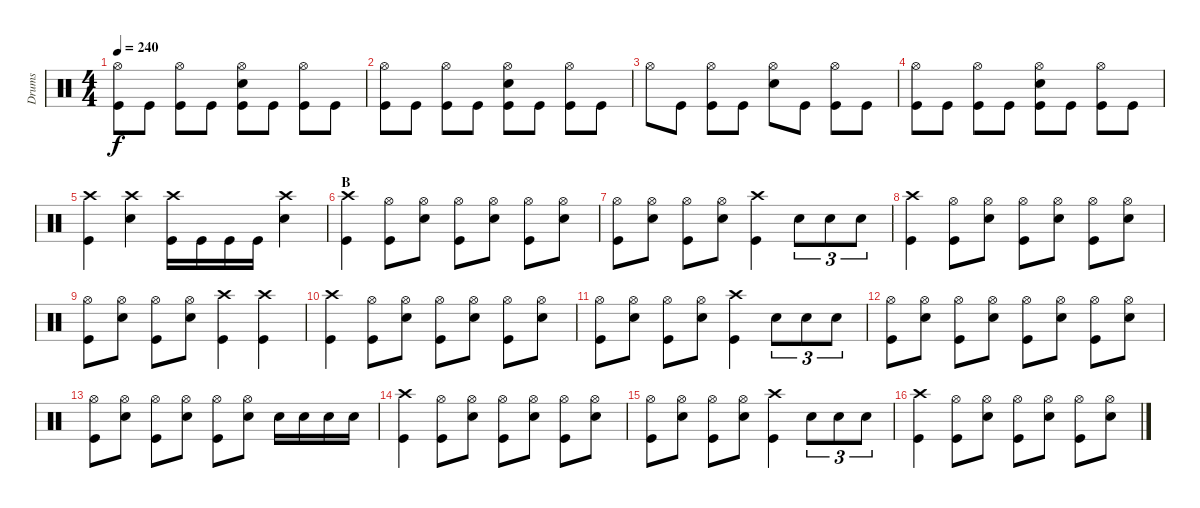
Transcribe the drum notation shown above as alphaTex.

\track ("Drums" "Drums") {instrument percussion}
\staff {score}
\articulation defaults
\ts (4 4)
\tempo 240
\clef neutral
\ks c
("Hi-Hat (open)" "Kick (hit)").8{dy f} "Kick (hit)".8 ("Hi-Hat (open)" "Kick (hit)").8 "Kick (hit)".8 ("Hi-Hat (open)" "Snare (hit) 2" "Kick (hit)").8 "Kick (hit)".8 ("Hi-Hat (open)" "Kick (hit)").8 "Kick (hit)".8 |
("Hi-Hat (open)" "Kick (hit)").8 "Kick (hit)".8 ("Hi-Hat (open)" "Kick (hit)").8 "Kick (hit)".8 ("Hi-Hat (open)" "Snare (hit) 2" "Kick (hit)").8 "Kick (hit)".8 ("Hi-Hat (open)" "Kick (hit)").8 "Kick (hit)".8 |
"Hi-Hat (open)".8 "Kick (hit)".8 ("Hi-Hat (open)" "Kick (hit)").8 "Kick (hit)".8 ("Hi-Hat (open)" "Snare (hit) 2").8 "Kick (hit)".8 ("Hi-Hat (open)" "Kick (hit)").8 "Kick (hit)".8 |
("Hi-Hat (open)" "Kick (hit)").8 "Kick (hit)".8 ("Hi-Hat (open)" "Kick (hit)").8 "Kick (hit)".8 ("Hi-Hat (open)" "Snare (hit) 2" "Kick (hit)").8 "Kick (hit)".8 ("Hi-Hat (open)" "Kick (hit)").8 "Kick (hit)".8 |
("Crash high (hit)" "Kick (hit)").4 ("Crash high (hit)" "Snare (hit) 2").4 ("Crash high (hit)" "Kick (hit)").16 "Kick (hit)".16 "Kick (hit)".16 "Kick (hit)".16 ("Crash high (hit)" "Snare (hit) 2").4 |
\section ("" "B")
("Crash high (hit)" "Kick (hit)").4 ("Hi-Hat (open)" "Kick (hit)").8 ("Hi-Hat (open)" "Snare (hit) 2").8 ("Hi-Hat (open)" "Kick (hit)").8 ("Hi-Hat (open)" "Snare (hit) 2").8 ("Hi-Hat (open)" "Kick (hit)").8 ("Hi-Hat (open)" "Snare (hit) 2").8 |
("Hi-Hat (open)" "Kick (hit)").8 ("Hi-Hat (open)" "Snare (hit) 2").8 ("Hi-Hat (open)" "Kick (hit)").8 ("Hi-Hat (open)" "Snare (hit) 2").8 ("Crash high (hit)" "Kick (hit)").4 "Snare (hit) 2".8{tu (3 2)} "Snare (hit) 2".8{tu (3 2)} "Snare (hit) 2".8{tu (3 2)} |
("Crash high (hit)" "Kick (hit)").4 ("Hi-Hat (open)" "Kick (hit)").8 ("Hi-Hat (open)" "Snare (hit) 2").8 ("Hi-Hat (open)" "Kick (hit)").8 ("Hi-Hat (open)" "Snare (hit) 2").8 ("Hi-Hat (open)" "Kick (hit)").8 ("Hi-Hat (open)" "Snare (hit) 2").8 |
("Hi-Hat (open)" "Kick (hit)").8 ("Hi-Hat (open)" "Snare (hit) 2").8 ("Hi-Hat (open)" "Kick (hit)").8 ("Hi-Hat (open)" "Snare (hit) 2").8 ("Crash high (hit)" "Kick (hit)").4 ("Crash high (hit)" "Kick (hit)").4 |
("Crash high (hit)" "Kick (hit)").4 ("Hi-Hat (open)" "Kick (hit)").8 ("Hi-Hat (open)" "Snare (hit) 2").8 ("Hi-Hat (open)" "Kick (hit)").8 ("Hi-Hat (open)" "Snare (hit) 2").8 ("Hi-Hat (open)" "Kick (hit)").8 ("Hi-Hat (open)" "Snare (hit) 2").8 |
("Hi-Hat (open)" "Kick (hit)").8 ("Hi-Hat (open)" "Snare (hit) 2").8 ("Hi-Hat (open)" "Kick (hit)").8 ("Hi-Hat (open)" "Snare (hit) 2").8 ("Crash high (hit)" "Kick (hit)").4 "Snare (hit) 2".8{tu (3 2)} "Snare (hit) 2".8{tu (3 2)} "Snare (hit) 2".8{tu (3 2)} |
("Hi-Hat (open)" "Kick (hit)").8 ("Hi-Hat (open)" "Snare (hit) 2").8 ("Hi-Hat (open)" "Kick (hit)").8 ("Hi-Hat (open)" "Snare (hit) 2").8 ("Hi-Hat (open)" "Kick (hit)").8 ("Hi-Hat (open)" "Snare (hit) 2").8 ("Hi-Hat (open)" "Kick (hit)").8 ("Hi-Hat (open)" "Snare (hit) 2").8 |
("Hi-Hat (open)" "Kick (hit)").8 ("Hi-Hat (open)" "Snare (hit) 2").8 ("Hi-Hat (open)" "Kick (hit)").8 ("Hi-Hat (open)" "Snare (hit) 2").8 ("Hi-Hat (open)" "Kick (hit)").8 ("Hi-Hat (open)" "Snare (hit) 2").8 "Snare (hit) 2".16 "Snare (hit) 2".16 "Snare (hit) 2".16 "Snare (hit) 2".16 |
("Crash high (hit)" "Kick (hit)").4 ("Hi-Hat (open)" "Kick (hit)").8 ("Hi-Hat (open)" "Snare (hit) 2").8 ("Hi-Hat (open)" "Kick (hit)").8 ("Hi-Hat (open)" "Snare (hit) 2").8 ("Hi-Hat (open)" "Kick (hit)").8 ("Hi-Hat (open)" "Snare (hit) 2").8 |
("Hi-Hat (open)" "Kick (hit)").8 ("Hi-Hat (open)" "Snare (hit) 2").8 ("Hi-Hat (open)" "Kick (hit)").8 ("Hi-Hat (open)" "Snare (hit) 2").8 ("Crash high (hit)" "Kick (hit)").4 "Snare (hit) 2".8{tu (3 2)} "Snare (hit) 2".8{tu (3 2)} "Snare (hit) 2".8{tu (3 2)} |
("Crash high (hit)" "Kick (hit)").4 ("Hi-Hat (open)" "Kick (hit)").8 ("Hi-Hat (open)" "Snare (hit) 2").8 ("Hi-Hat (open)" "Kick (hit)").8 ("Hi-Hat (open)" "Snare (hit) 2").8 ("Hi-Hat (open)" "Kick (hit)").8 ("Hi-Hat (open)" "Snare (hit) 2").8
